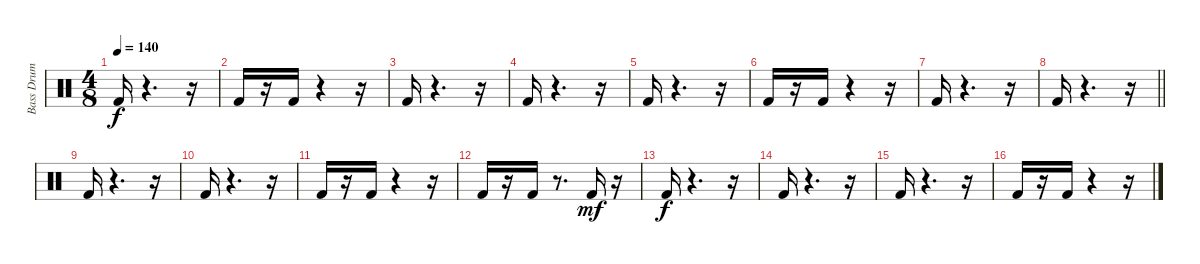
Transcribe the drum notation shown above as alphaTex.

\track ("Bass Drum" "Bass Drum") {instrument percussion}
\staff {score}
\articulation defaults
\ts (4 8)
\tempo 140
\clef neutral
\ks c "Kick (hit) 2".16{dy f}
r.4{d} r.16 |
"Kick (hit) 2".16 r.16 "Kick (hit) 2".16 r.4 r.16 |
"Kick (hit) 2".16 r.4{d} r.16 |
"Kick (hit) 2".16 r.4{d} r.16 |
"Kick (hit) 2".16 r.4{d} r.16 |
"Kick (hit) 2".16 r.16 "Kick (hit) 2".16 r.4 r.16 |
"Kick (hit) 2".16 r.4{d} r.16 |
\barLineRight lightlight "Kick (hit) 2".16
r.4{d} r.16 |
"Kick (hit) 2".16 r.4{d} r.16 |
"Kick (hit) 2".16 r.4{d} r.16 |
"Kick (hit) 2".16 r.16 "Kick (hit) 2".16 r.4 r.16 |
"Kick (hit) 2".16 r.16 "Kick (hit) 2".16 r.8{d} "Kick (hit) 2".16{dy mf} r.16 |
"Kick (hit) 2".16{dy f} r.4{d} r.16 |
"Kick (hit) 2".16 r.4{d} r.16 |
"Kick (hit) 2".16 r.4{d} r.16 |
"Kick (hit) 2".16 r.16 "Kick (hit) 2".16 r.4 r.16
